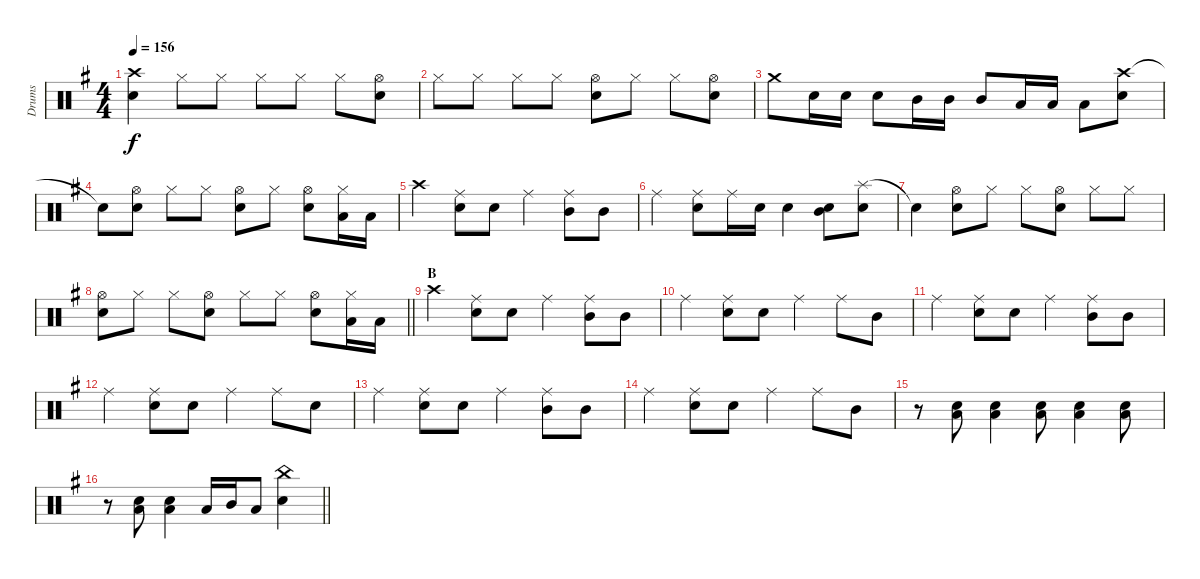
\track ("Drums" "Drums") {instrument percussion}
\staff {score}
\articulation defaults
\ts (4 4)
\tempo 156
\clef neutral
\ks g
("Crash high (hit)" "Snare (hit) 2").4{dy f} "Hi-Hat (closed)".8 "Hi-Hat (closed)".8 "Hi-Hat (closed)".8 "Hi-Hat (closed)".8 "Hi-Hat (closed)".8 ("Hi-Hat (open)" "Snare (hit) 2").8 |
"Hi-Hat (closed)".8 "Hi-Hat (closed)".8 "Hi-Hat (closed)".8 "Hi-Hat (closed)".8 ("Hi-Hat (open)" "Snare (hit) 2").8 "Hi-Hat (closed)".8 "Hi-Hat (closed)".8 ("Hi-Hat (open)" "Snare (hit) 2").8 |
"Crash medium (hit)".8 "Snare (hit) 2".16 "Snare (hit) 2".16 "Snare (hit) 2".8 "Mid Tom (hit)".16 "Mid Tom (hit)".16 "Mid Tom (hit)".8 "Low Tom (hit)".16 "Low Tom (hit)".16 "Low Tom (hit)".8 ("Crash high (hit)" "Snare (hit) 2").8 |
"Snare (hit)"{t}.8 ("Hi-Hat (open)" "Snare (hit) 2").8 "Hi-Hat (closed)".8 "Hi-Hat (closed)".8 ("Hi-Hat (open)" "Snare (hit) 2").8 "Hi-Hat (closed)".8 ("Hi-Hat (open)" "Snare (hit) 2").8 ("Hi-Hat (closed)" "Low Tom (hit)").16 "Low Tom (hit)".16 |
"Crash high (hit)".4 ("Ride (middle)" "Snare (hit) 2").8 "Snare (hit) 2".8 "Ride (middle)".4 ("Ride (middle)" "Mid Tom (hit)").8 "Mid Tom (hit)".8 |
"Ride (middle)".4 ("Ride (middle)" "Snare (hit) 2").8 "Ride (middle)".16 "Snare (hit) 2".16 "Snare (hit) 2".4 ("Mid Tom (hit)" "Snare (hit) 2").8 ("Splash (hit)" "Snare (hit) 2").8 |
"Snare (hit)"{t}.4 ("Hi-Hat (open)" "Snare (hit) 2").8 "Hi-Hat (closed)".8 "Hi-Hat (closed)".8 ("Hi-Hat (open)" "Snare (hit) 2").8 "Hi-Hat (closed)".8 "Hi-Hat (closed)".8 |
\barLineRight lightlight
("Hi-Hat (open)" "Snare (hit) 2").8 "Hi-Hat (closed)".8 "Hi-Hat (closed)".8 ("Hi-Hat (open)" "Snare (hit) 2").8 "Hi-Hat (closed)".8 "Hi-Hat (closed)".8 ("Hi-Hat (open)" "Snare (hit) 2").8 ("Hi-Hat (closed)" "Low Tom (hit)").16 "Low Tom (hit)".16 |
\section ("" "B")
"Crash high (hit)".4 ("Ride (middle)" "Snare (hit) 2").8 "Snare (hit) 2".8 "Ride (middle)".4 ("Ride (middle)" "Mid Tom (hit)").8 "Mid Tom (hit)".8 |
"Ride (middle)".4 ("Ride (middle)" "Snare (hit) 2").8 "Snare (hit) 2".8 "Ride (middle)".4 "Ride (middle)".8 "Mid Tom (hit)".8 |
"Ride (middle)".4 ("Ride (middle)" "Snare (hit) 2").8 "Snare (hit) 2".8 "Ride (middle)".4 ("Ride (middle)" "Mid Tom (hit)").8 "Mid Tom (hit)".8 |
"Ride (middle)".4 ("Ride (middle)" "Snare (hit) 2").8 "Snare (hit) 2".8 "Ride (middle)".4 "Ride (middle)".8 "Snare (hit) 2".8 |
"Ride (middle)".4 ("Ride (middle)" "Snare (hit) 2").8 "Snare (hit) 2".8 "Ride (middle)".4 ("Mid Tom (hit)" "Ride (middle)").8 "Mid Tom (hit)".8 |
"Ride (middle)".4 ("Ride (middle)" "Snare (hit) 2").8 "Snare (hit) 2".8 "Ride (middle)".4 "Ride (middle)".8 "Mid Tom (hit)".8 |
r.8 ("Snare (hit) 2" "Low Tom (hit)").8 ("Snare (hit) 2" "Low Tom (hit)").4 ("Snare (hit) 2" "Low Tom (hit)").8 ("Snare (hit) 2" "Low Tom (hit)").4 ("Snare (hit) 2" "Low Tom (hit)").8 |
\barLineRight lightlight
r.8 ("Snare (hit) 2" "Low Tom (hit)").8 ("Snare (hit) 2" "Low Tom (hit)").4 "Low Tom (hit)".16 "Mid Tom (hit)".16 "Low Tom (hit)".8 ("Snare (hit) 2" "China (hit)").4
